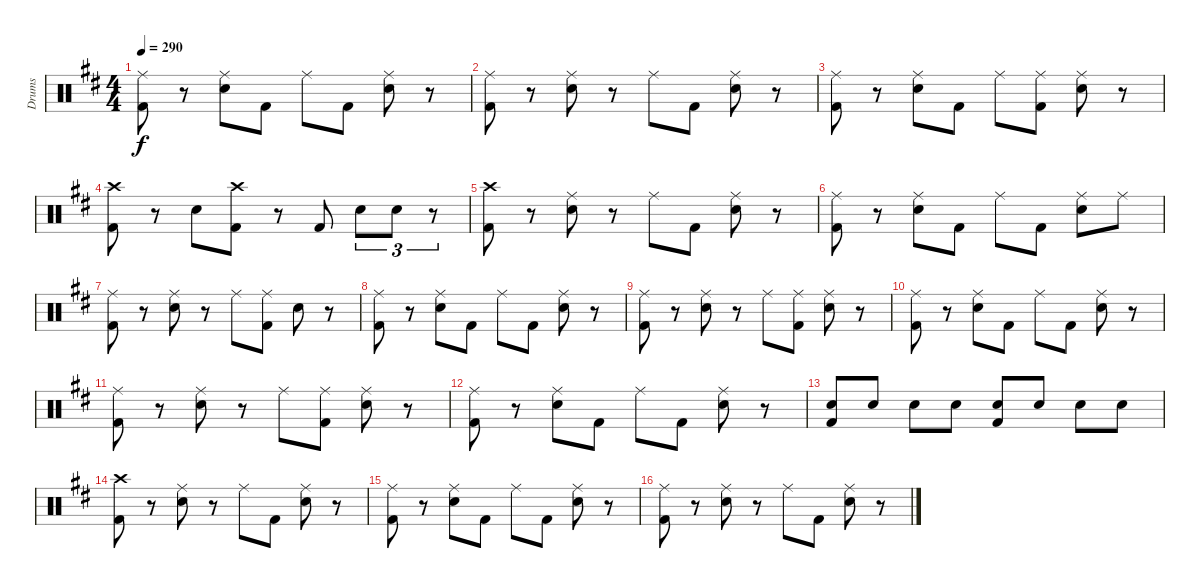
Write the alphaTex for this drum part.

\track ("Drums" "Drums") {instrument percussion}
\staff {score}
\articulation defaults
\ts (4 4)
\tempo 290
\clef neutral
\ks d
("Ride (middle)" "Kick (hit) 2").8{dy f} r.8 ("Ride (middle)" "Electric Snare (hit)").8 "Kick (hit) 2".8 "Ride (middle)".8 "Kick (hit) 2".8 ("Ride (middle)" "Electric Snare (hit)").8 r.8 |
("Ride (middle)" "Kick (hit) 2").8 r.8 ("Ride (middle)" "Electric Snare (hit)").8 r.8 "Ride (middle)".8 "Kick (hit) 2".8 ("Ride (middle)" "Electric Snare (hit)").8 r.8 |
("Ride (middle)" "Kick (hit) 2").8 r.8 ("Ride (middle)" "Electric Snare (hit)").8 "Kick (hit) 2".8 "Ride (middle)".8 ("Ride (middle)" "Kick (hit) 2").8 ("Ride (middle)" "Electric Snare (hit)").8 r.8 |
("Crash high (hit)" "Kick (hit) 2").8 r.8 "Electric Snare (hit)".8 ("Crash high (hit)" "Kick (hit) 2").8 r.8 "Kick (hit) 2".8 "Electric Snare (hit)".8{tu (3 2)} "Electric Snare (hit)".8{tu (3 2)} r.8{tu (3 2)} |
("Crash high (hit)" "Kick (hit) 2").8 r.8 ("Ride (middle)" "Electric Snare (hit)").8 r.8 "Ride (middle)".8 "Kick (hit) 2".8 ("Ride (middle)" "Electric Snare (hit)").8 r.8 |
("Ride (middle)" "Kick (hit) 2").8 r.8 ("Ride (middle)" "Electric Snare (hit)").8 "Kick (hit) 2".8 "Ride (middle)".8 "Kick (hit) 2".8 ("Ride (middle)" "Electric Snare (hit)").8 "Ride (middle)".8 |
("Ride (middle)" "Kick (hit) 2").8 r.8 ("Ride (middle)" "Electric Snare (hit)").8 r.8 "Ride (middle)".8 ("Ride (middle)" "Kick (hit) 2").8 "Electric Snare (hit)".8 r.8 |
("Ride (middle)" "Kick (hit) 2").8 r.8 ("Ride (middle)" "Electric Snare (hit)").8 "Kick (hit) 2".8 "Ride (middle)".8 "Kick (hit) 2".8 ("Ride (middle)" "Electric Snare (hit)").8 r.8 |
("Ride (middle)" "Kick (hit) 2").8 r.8 ("Ride (middle)" "Electric Snare (hit)").8 r.8 "Ride (middle)".8 ("Ride (middle)" "Kick (hit) 2").8 ("Ride (middle)" "Electric Snare (hit)").8 r.8 |
("Ride (middle)" "Kick (hit) 2").8 r.8 ("Ride (middle)" "Electric Snare (hit)").8 "Kick (hit) 2".8 "Ride (middle)".8 "Kick (hit) 2".8 ("Ride (middle)" "Electric Snare (hit)").8 r.8 |
("Ride (middle)" "Kick (hit) 2").8 r.8 ("Ride (middle)" "Electric Snare (hit)").8 r.8 "Ride (middle)".8 ("Ride (middle)" "Kick (hit) 2").8 ("Ride (middle)" "Electric Snare (hit)").8 r.8 |
("Ride (middle)" "Kick (hit) 2").8 r.8 ("Ride (middle)" "Electric Snare (hit)").8 "Kick (hit) 2".8 "Ride (middle)".8 "Kick (hit) 2".8 ("Ride (middle)" "Electric Snare (hit)").8 r.8 |
("Electric Snare (hit)" "Kick (hit) 2").8 "Electric Snare (hit)".8 "Electric Snare (hit)".8 "Electric Snare (hit)".8 ("Electric Snare (hit)" "Kick (hit) 2").8 "Electric Snare (hit)".8 "Electric Snare (hit)".8 "Electric Snare (hit)".8 |
("Crash high (hit)" "Kick (hit) 2").8 r.8 ("Ride (middle)" "Electric Snare (hit)").8 r.8 "Ride (middle)".8 "Kick (hit) 2".8 ("Ride (middle)" "Electric Snare (hit)").8 r.8 |
("Ride (middle)" "Kick (hit) 2").8 r.8 ("Ride (middle)" "Electric Snare (hit)").8 "Kick (hit) 2".8 "Ride (middle)".8 "Kick (hit) 2".8 ("Ride (middle)" "Electric Snare (hit)").8 r.8 |
("Ride (middle)" "Kick (hit) 2").8 r.8 ("Ride (middle)" "Electric Snare (hit)").8 r.8 "Ride (middle)".8 "Kick (hit) 2".8 ("Ride (middle)" "Electric Snare (hit)").8 r.8
